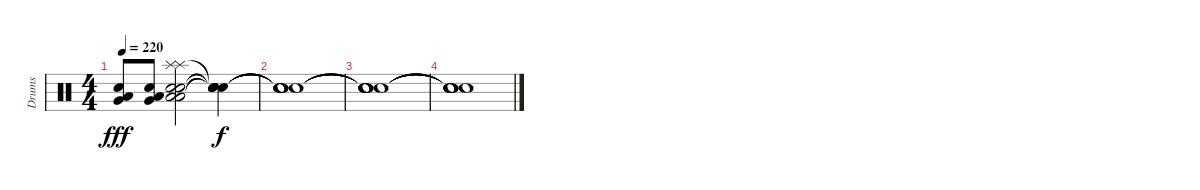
\track ("Drums" "Drums") {instrument percussion}
\staff {score}
\articulation defaults
\ts (4 4)
\tempo 220
\clef neutral
\ks c
("Very Low Tom (hit)" "Electric Snare (hit)" "Low Floor Tom (hit)").8{dy fff} ("Very Low Tom (hit)" "Electric Snare (hit)" "Low Floor Tom (hit)").8 ("Low Floor Tom (hit)" "Low Floor Tom (hit)" "Electric Snare (hit)" "Snare (hit) 2" "Splash (hit)" "Splash (hit)").2 ("Snare (hit)"{t} "Snare (hit)"{t} "Snare (hit)"{t} "Snare (hit)"{t} "Snare (hit)"{t}).4{dy f} |
("Snare (hit)"{t} "Snare (hit)"{t} "Snare (hit)"{t} "Snare (hit)"{t} "Snare (hit)"{t}).1 |
("Snare (hit)"{t} "Snare (hit)"{t} "Snare (hit)"{t} "Snare (hit)"{t} "Snare (hit)"{t}).1 |
("Snare (hit)"{t} "Snare (hit)"{t} "Snare (hit)"{t} "Snare (hit)"{t} "Snare (hit)"{t}).1
